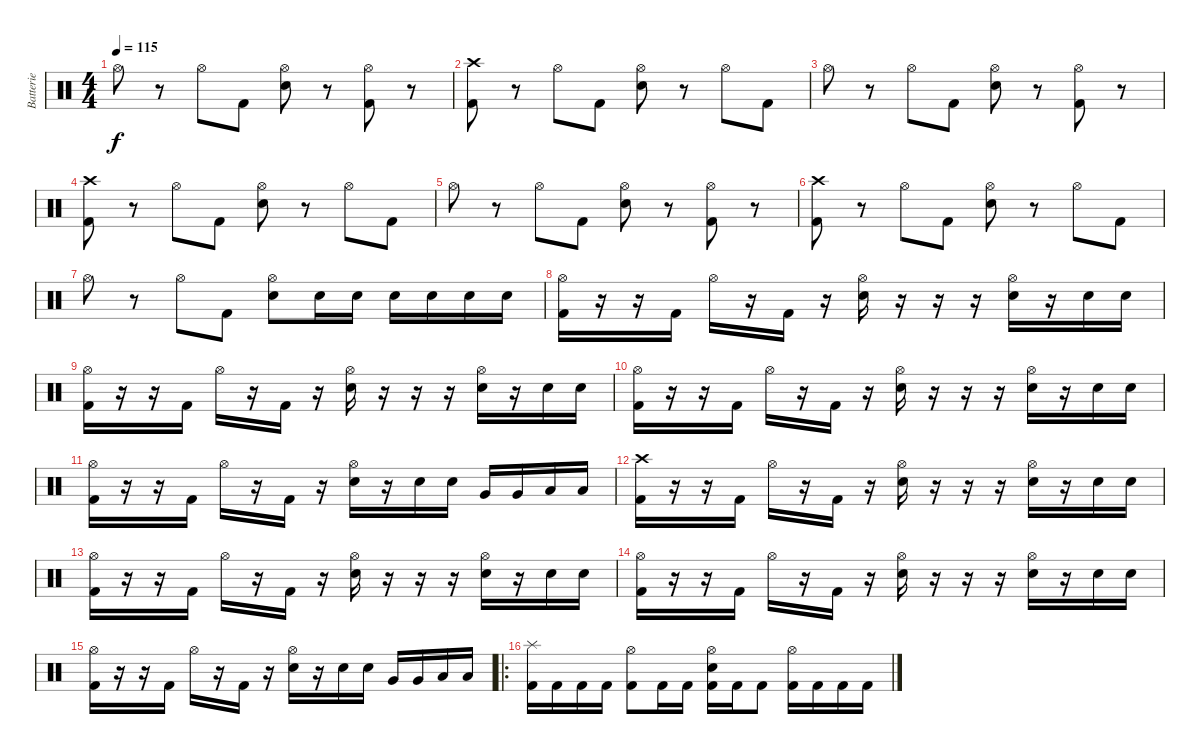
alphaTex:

\track ("Batterie" "Batterie") {instrument percussion}
\staff {score}
\articulation defaults
\ts (4 4)
\tempo 115
\clef neutral
\ks c "Hi-Hat (open)".8{dy f}
r.8 "Hi-Hat (open)".8 "Kick (hit) 2".8 ("Hi-Hat (open)" "Electric Snare (hit)").8 r.8 ("Hi-Hat (open)" "Kick (hit) 2").8 r.8 |
("Crash high (hit)" "Kick (hit) 2").8 r.8 "Hi-Hat (open)".8 "Kick (hit) 2".8 ("Hi-Hat (open)" "Electric Snare (hit)").8 r.8 "Hi-Hat (open)".8 "Kick (hit) 2".8 |
"Hi-Hat (open)".8 r.8 "Hi-Hat (open)".8 "Kick (hit) 2".8 ("Hi-Hat (open)" "Electric Snare (hit)").8 r.8 ("Hi-Hat (open)" "Kick (hit) 2").8 r.8 |
("Crash high (hit)" "Kick (hit) 2").8 r.8 "Hi-Hat (open)".8 "Kick (hit) 2".8 ("Hi-Hat (open)" "Electric Snare (hit)").8 r.8 "Hi-Hat (open)".8 "Kick (hit) 2".8 |
"Hi-Hat (open)".8 r.8 "Hi-Hat (open)".8 "Kick (hit) 2".8 ("Hi-Hat (open)" "Electric Snare (hit)").8 r.8 ("Hi-Hat (open)" "Kick (hit) 2").8 r.8 |
("Crash high (hit)" "Kick (hit) 2").8 r.8 "Hi-Hat (open)".8 "Kick (hit) 2".8 ("Hi-Hat (open)" "Electric Snare (hit)").8 r.8 "Hi-Hat (open)".8 "Kick (hit) 2".8 |
"Hi-Hat (open)".8 r.8 "Hi-Hat (open)".8 "Kick (hit) 2".8 ("Hi-Hat (open)" "Electric Snare (hit)").8 "Electric Snare (hit)".16 "Electric Snare (hit)".16 "Electric Snare (hit)".16 "Electric Snare (hit)".16 "Electric Snare (hit)".16 "Electric Snare (hit)".16 |
("Hi-Hat (open)" "Kick (hit) 2").16 r.16 r.16 "Kick (hit) 2".16 "Hi-Hat (open)".16 r.16 "Kick (hit) 2".16 r.16 ("Hi-Hat (open)" "Electric Snare (hit)").16 r.16 r.16 r.16 ("Hi-Hat (open)" "Electric Snare (hit)").16 r.16 "Electric Snare (hit)".16 "Electric Snare (hit)".16 |
("Hi-Hat (open)" "Kick (hit) 2").16 r.16 r.16 "Kick (hit) 2".16 "Hi-Hat (open)".16 r.16 "Kick (hit) 2".16 r.16 ("Hi-Hat (open)" "Electric Snare (hit)").16 r.16 r.16 r.16 ("Hi-Hat (open)" "Electric Snare (hit)").16 r.16 "Electric Snare (hit)".16 "Electric Snare (hit)".16 |
("Hi-Hat (open)" "Kick (hit) 2").16 r.16 r.16 "Kick (hit) 2".16 "Hi-Hat (open)".16 r.16 "Kick (hit) 2".16 r.16 ("Hi-Hat (open)" "Electric Snare (hit)").16 r.16 r.16 r.16 ("Hi-Hat (open)" "Electric Snare (hit)").16 r.16 "Electric Snare (hit)".16 "Electric Snare (hit)".16 |
("Hi-Hat (open)" "Kick (hit) 2").16 r.16 r.16 "Kick (hit) 2".16 "Hi-Hat (open)".16 r.16 "Kick (hit) 2".16 r.16 ("Hi-Hat (open)" "Electric Snare (hit)").16 r.16 "Electric Snare (hit)".16 "Electric Snare (hit)".16 "Very Low Tom (hit)".16 "Very Low Tom (hit)".16 "Low Floor Tom (hit)".16 "Low Floor Tom (hit)".16 |
("Crash high (hit)" "Kick (hit) 2").16 r.16 r.16 "Kick (hit) 2".16 "Hi-Hat (open)".16 r.16 "Kick (hit) 2".16 r.16 ("Hi-Hat (open)" "Electric Snare (hit)").16 r.16 r.16 r.16 ("Hi-Hat (open)" "Electric Snare (hit)").16 r.16 "Electric Snare (hit)".16 "Electric Snare (hit)".16 |
("Hi-Hat (open)" "Kick (hit) 2").16 r.16 r.16 "Kick (hit) 2".16 "Hi-Hat (open)".16 r.16 "Kick (hit) 2".16 r.16 ("Hi-Hat (open)" "Electric Snare (hit)").16 r.16 r.16 r.16 ("Hi-Hat (open)" "Electric Snare (hit)").16 r.16 "Electric Snare (hit)".16 "Electric Snare (hit)".16 |
("Hi-Hat (open)" "Kick (hit) 2").16 r.16 r.16 "Kick (hit) 2".16 "Hi-Hat (open)".16 r.16 "Kick (hit) 2".16 r.16 ("Hi-Hat (open)" "Electric Snare (hit)").16 r.16 r.16 r.16 ("Hi-Hat (open)" "Electric Snare (hit)").16 r.16 "Electric Snare (hit)".16 "Electric Snare (hit)".16 |
("Hi-Hat (open)" "Kick (hit) 2").16 r.16 r.16 "Kick (hit) 2".16 "Hi-Hat (open)".16 r.16 "Kick (hit) 2".16 r.16 ("Hi-Hat (open)" "Electric Snare (hit)").16 r.16 "Electric Snare (hit)".16 "Electric Snare (hit)".16 "Very Low Tom (hit)".16 "Very Low Tom (hit)".16 "Low Floor Tom (hit)".16 "Low Floor Tom (hit)".16 |
\ro
("Splash (hit)" "Kick (hit) 2").16 "Kick (hit) 2".16 "Kick (hit) 2".16 "Kick (hit) 2".16 ("Hi-Hat (open)" "Kick (hit) 2").8 "Kick (hit) 2".16 "Kick (hit) 2".16 ("Hi-Hat (open)" "Electric Snare (hit)" "Kick (hit) 2").16 "Kick (hit) 2".16 "Kick (hit) 2".8 ("Hi-Hat (open)" "Kick (hit) 2").16 "Kick (hit) 2".16 "Kick (hit) 2".16 "Kick (hit) 2".16
